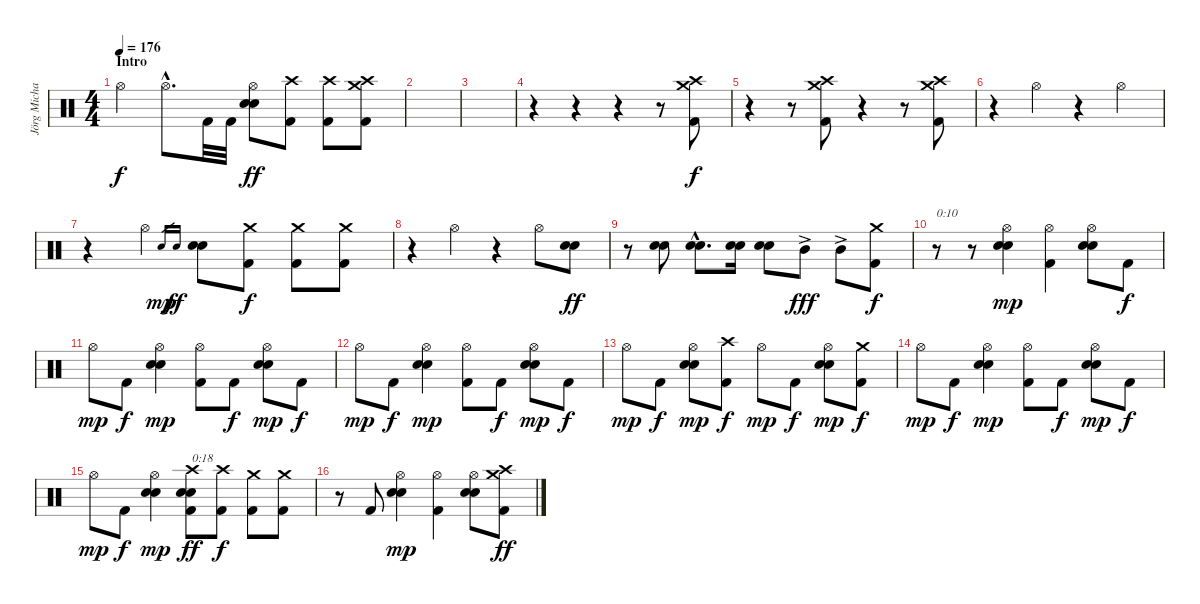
\track ("Jörg Michael" "Jörg Micha") {instrument percussion}
\staff {score}
\articulation defaults
\ts (4 4)
\section ("" "Intro")
\tempo 176
\clef neutral
\ks c "Hi-Hat (open)".4{dy f} "Hi-Hat (open)"{hac}.8{d} "Kick (hit) 2".32 "Kick (hit) 2".32
("Snare (hit) 2" "Electric Snare (hit)" "Hi-Hat (open)").8{dy ff} ("Kick (hit) 2" "Crash high (hit)").8 ("Kick (hit) 2" "Crash high (hit)").8 ("Kick (hit) 2" "Crash medium (hit)" "Crash high (hit)").8 |
|
|
r.4 r.4 r.4 r.8 ("Kick (hit) 2" "Crash medium (hit)" "Crash high (hit)").8{dy f} |
r.4 r.8 ("Kick (hit) 2" "Crash medium (hit)" "Crash high (hit)").8 r.4 r.8 ("Kick (hit) 2" "Crash medium (hit)" "Crash high (hit)").8 |
r.4 "Hi-Hat (open)".4 r.4 "Hi-Hat (open)".4 |
r.4 "Hi-Hat (open)".4 "Snare (hit) 2".16{gr dy mp} "Electric Snare (hit)".16{gr dy ff} ("Snare (hit) 2" "Electric Snare (hit)").8 ("Kick (hit) 2" "Crash medium (hit)").8{dy f} ("Kick (hit) 2" "Crash medium (hit)").8 ("Kick (hit) 2" "Crash medium (hit)").8 |
r.4 "Hi-Hat (open)".4 r.4 "Hi-Hat (open)".8 ("Snare (hit) 2" "Electric Snare (hit)").8{dy ff} |
r.8 ("Snare (hit) 2" "Electric Snare (hit)").8 ("Snare (hit) 2"{hac} "Electric Snare (hit)"{hac}).8{d} ("Snare (hit) 2" "Electric Snare (hit)").16 ("Snare (hit) 2" "Electric Snare (hit)").8 "Mid Tom (hit)"{ac}.8{dy fff} "Mid Tom (hit)"{ac}.8 ("Kick (hit) 2" "Crash medium (hit)").8{dy f} |
r.8{txt "0:10"} r.8 ("Snare (hit) 2" "Electric Snare (hit)" "Hi-Hat (open)").4{dy mp} ("Kick (hit) 2" "Hi-Hat (open)").4 ("Snare (hit) 2" "Electric Snare (hit)" "Hi-Hat (open)").8 "Kick (hit) 2".8{dy f} |
"Hi-Hat (open)".8{dy mp} "Kick (hit) 2".8{dy f} ("Snare (hit) 2" "Electric Snare (hit)" "Hi-Hat (open)").4{dy mp} ("Kick (hit) 2" "Hi-Hat (open)").8 "Kick (hit) 2".8{dy f} ("Snare (hit) 2" "Electric Snare (hit)" "Hi-Hat (open)").8{dy mp} "Kick (hit) 2".8{dy f} |
"Hi-Hat (open)".8{dy mp} "Kick (hit) 2".8{dy f} ("Snare (hit) 2" "Electric Snare (hit)" "Hi-Hat (open)").4{dy mp} ("Kick (hit) 2" "Hi-Hat (open)").8 "Kick (hit) 2".8{dy f} ("Snare (hit) 2" "Electric Snare (hit)" "Hi-Hat (open)").8{dy mp} "Kick (hit) 2".8{dy f} |
"Hi-Hat (open)".8{dy mp} "Kick (hit) 2".8{dy f} ("Snare (hit) 2" "Electric Snare (hit)" "Hi-Hat (open)").8{dy mp} ("Kick (hit) 2" "Crash high (hit)").8{dy f} "Hi-Hat (open)".8{dy mp} "Kick (hit) 2".8{dy f} ("Snare (hit) 2" "Electric Snare (hit)" "Hi-Hat (open)").8{dy mp} ("Kick (hit) 2" "Crash medium (hit)").8{dy f} |
"Hi-Hat (open)".8{dy mp} "Kick (hit) 2".8{dy f} ("Snare (hit) 2" "Electric Snare (hit)" "Hi-Hat (open)").4{dy mp} ("Kick (hit) 2" "Hi-Hat (open)").8 "Kick (hit) 2".8{dy f} ("Snare (hit) 2" "Electric Snare (hit)" "Hi-Hat (open)").8{dy mp} "Kick (hit) 2".8{dy f} |
"Hi-Hat (open)".8{dy mp} "Kick (hit) 2".8{dy f} ("Snare (hit) 2" "Electric Snare (hit)" "Hi-Hat (open)").4{dy mp} ("Kick (hit) 2" "Snare (hit) 2" "Electric Snare (hit)" "Crash high (hit)").8{txt "0:18" dy ff} ("Kick (hit) 2" "Crash high (hit)").8{dy f} ("Kick (hit) 2" "Crash medium (hit)").8 ("Kick (hit) 2" "Crash medium (hit)").8 |
r.8 "Kick (hit) 2".8 ("Snare (hit) 2" "Electric Snare (hit)" "Hi-Hat (open)").4{dy mp} ("Kick (hit) 2" "Hi-Hat (open)").4 ("Snare (hit) 2" "Electric Snare (hit)" "Hi-Hat (open)").8 ("Kick (hit) 2" "Crash high (hit)" "Crash medium (hit)").8{dy ff}
